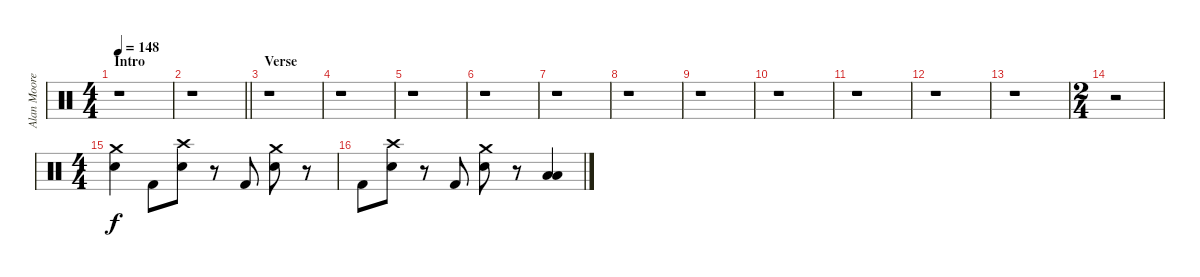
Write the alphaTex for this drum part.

\track ("Alan Moore" "Alan Moore") {instrument percussion}
\staff {score}
\articulation defaults
\ts (4 4)
\section ("" "Intro")
\tempo 148
\clef neutral
\ks c
r.1{dy f} |
\barLineRight lightlight
r.1 |
\section ("" "Verse")
r.1 |
r.1 |
r.1 |
r.1 |
r.1 |
r.1 |
r.1 |
r.1 |
r.1 |
r.1 |
r.1 |
\ts (2 4)
r.2 |
\ts (4 4)
("Crash medium (hit)" "Snare (hit) 2").4 "Kick (hit) 2".8 ("Crash high (hit)" "Snare (hit) 2").8 r.8 "Kick (hit) 2".8 ("Crash medium (hit)" "Snare (hit) 2").8 r.8 |
"Kick (hit) 2".8 ("Crash high (hit)" "Snare (hit) 2").8 r.8 "Kick (hit) 2".8 ("Crash medium (hit)" "Snare (hit) 2").8 r.8 ("Low Tom (hit)" "Low Tom (hit)").4
